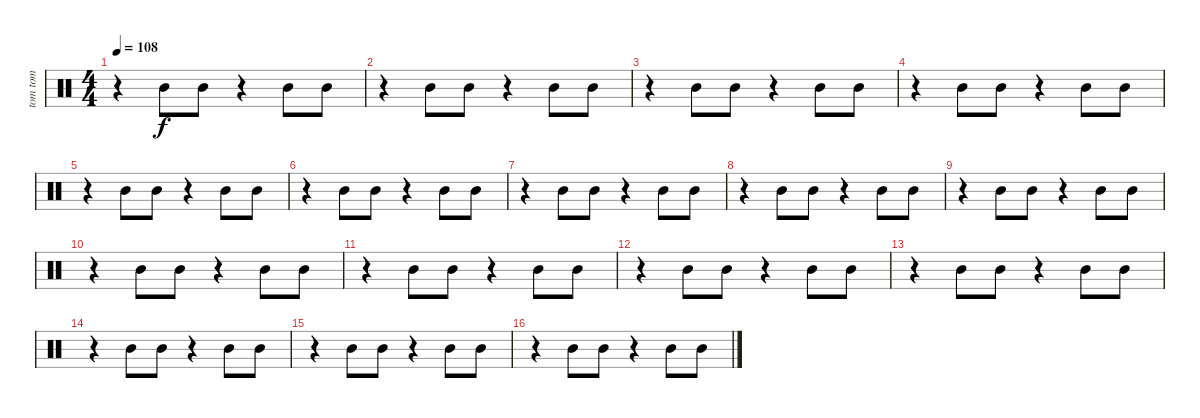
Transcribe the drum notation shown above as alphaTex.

\track ("tom tom             " "tom tom   ") {instrument percussion}
\staff {score}
\articulation defaults
\ts (4 4)
\tempo 108
\clef neutral
\ks c
r.4{dy f} "Mid Tom (hit)".8{volume 15} "Mid Tom (hit)".8{volume 14} r.4 "Mid Tom (hit)".8{volume 14} "Mid Tom (hit)".8{volume 14} |
r.4 "Mid Tom (hit)".8{volume 14} "Mid Tom (hit)".8{volume 14} r.4 "Mid Tom (hit)".8{volume 13} "Mid Tom (hit)".8{volume 13} |
r.4 "Mid Tom (hit)".8{volume 13} "Mid Tom (hit)".8{volume 13} r.4 "Mid Tom (hit)".8{volume 12} "Mid Tom (hit)".8 |
r.4 "Mid Tom (hit)".8{volume 12} "Mid Tom (hit)".8{volume 12} r.4 "Mid Tom (hit)".8{volume 11} "Mid Tom (hit)".8{volume 11} |
r.4 "Mid Tom (hit)".8{volume 11} "Mid Tom (hit)".8{volume 11} r.4 "Mid Tom (hit)".8{volume 10} "Mid Tom (hit)".8{volume 10} |
r.4 "Mid Tom (hit)".8{volume 10} "Mid Tom (hit)".8{volume 10} r.4 "Mid Tom (hit)".8{volume 10} "Mid Tom (hit)".8{volume 9} |
r.4 "Mid Tom (hit)".8{volume 9} "Mid Tom (hit)".8{volume 9} r.4 "Mid Tom (hit)".8{volume 9} "Mid Tom (hit)".8{volume 8} |
r.4 "Mid Tom (hit)".8{volume 8} "Mid Tom (hit)".8{volume 8} r.4 "Mid Tom (hit)".8{volume 8} "Mid Tom (hit)".8{volume 8} |
r.4 "Mid Tom (hit)".8{volume 7} "Mid Tom (hit)".8{volume 7} r.4 "Mid Tom (hit)".8{volume 7} "Mid Tom (hit)".8{volume 7} |
r.4 "Mid Tom (hit)".8{volume 6} "Mid Tom (hit)".8{volume 6} r.4 "Mid Tom (hit)".8{volume 6} "Mid Tom (hit)".8{volume 6} |
r.4 "Mid Tom (hit)".8{volume 5} "Mid Tom (hit)".8 r.4 "Mid Tom (hit)".8{volume 5} "Mid Tom (hit)".8{volume 5} |
r.4 "Mid Tom (hit)".8{volume 4} "Mid Tom (hit)".8{volume 4} r.4 "Mid Tom (hit)".8{volume 4} "Mid Tom (hit)".8{volume 4} |
r.4 "Mid Tom (hit)".8{volume 4} "Mid Tom (hit)".8{volume 3} r.4 "Mid Tom (hit)".8{volume 3} "Mid Tom (hit)".8{volume 3} |
r.4 "Mid Tom (hit)".8{volume 2} "Mid Tom (hit)".8{volume 2} r.4 "Mid Tom (hit)".8{volume 2} "Mid Tom (hit)".8{volume 2} |
r.4 "Mid Tom (hit)".8{volume 2} "Mid Tom (hit)".8{volume 2} r.4 "Mid Tom (hit)".8{volume 1} "Mid Tom (hit)".8{volume 1} |
r.4 "Mid Tom (hit)".8{volume 1} "Mid Tom (hit)".8{volume 0} r.4 "Mid Tom (hit)".8{volume 0} "Mid Tom (hit)".8{volume 0}
